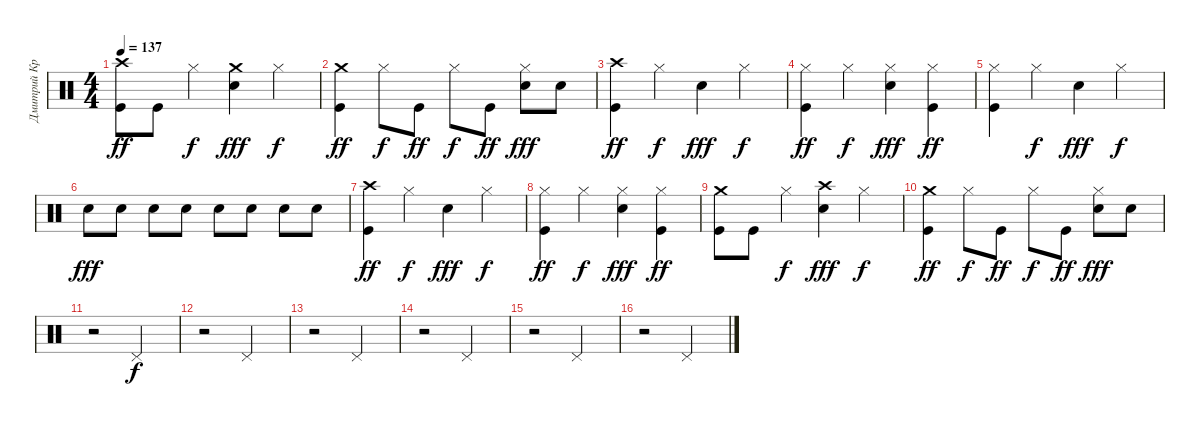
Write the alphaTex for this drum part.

\track ("Дмитрий Кревенков" "Дмитрий Кр") {instrument percussion}
\staff {score}
\articulation defaults
\ts (4 4)
\tempo 137
\clef neutral
\ks c
("Crash high (hit)" "Kick (hit)").8{dy ff} "Kick (hit)".8 "Hi-Hat (closed)".4{dy f} ("Crash medium (hit)" "Snare (hit) 2").4{dy fff} "Hi-Hat (closed)".4{dy f} |
("Crash medium (hit)" "Kick (hit)").4{dy ff} "Hi-Hat (closed)".8{dy f} "Kick (hit)".8{dy ff} "Hi-Hat (closed)".8{dy f} "Kick (hit)".8{dy ff} ("Snare (hit) 2" "Hi-Hat (closed)").8{dy fff} "Snare (hit) 2".8 |
("Kick (hit)" "Crash high (hit)").4{dy ff} "Hi-Hat (closed)".4{dy f} "Snare (hit) 2".4{dy fff} "Hi-Hat (closed)".4{dy f} |
("Kick (hit)" "Hi-Hat (closed)").4{dy ff} "Hi-Hat (closed)".4{dy f} ("Snare (hit) 2" "Hi-Hat (closed)").4{dy fff} ("Kick (hit)" "Hi-Hat (closed)").4{dy ff} |
("Kick (hit)" "Hi-Hat (closed)").4 "Hi-Hat (closed)".4{dy f} "Snare (hit) 2".4{dy fff} "Hi-Hat (closed)".4{dy f} |
"Snare (hit) 2".8{dy fff} "Snare (hit) 2".8 "Snare (hit) 2".8 "Snare (hit) 2".8 "Snare (hit) 2".8 "Snare (hit) 2".8 "Snare (hit) 2".8 "Snare (hit) 2".8 |
("Kick (hit)" "Crash high (hit)").4{dy ff} "Hi-Hat (closed)".4{dy f} "Snare (hit) 2".4{dy fff} "Hi-Hat (closed)".4{dy f} |
("Kick (hit)" "Hi-Hat (closed)").4{dy ff} "Hi-Hat (closed)".4{dy f} ("Snare (hit) 2" "Hi-Hat (closed)").4{dy fff} ("Kick (hit)" "Hi-Hat (closed)").4{dy ff} |
("Kick (hit)" "Crash medium (hit)").8 "Kick (hit)".8 "Hi-Hat (closed)".4{dy f} ("Snare (hit) 2" "Crash high (hit)").4{dy fff} "Hi-Hat (closed)".4{dy f} |
("Crash medium (hit)" "Kick (hit)").4{dy ff} "Hi-Hat (closed)".8{dy f} "Kick (hit)".8{dy ff} "Hi-Hat (closed)".8{dy f} "Kick (hit)".8{dy ff} ("Snare (hit) 2" "Hi-Hat (closed)").8{dy fff} "Snare (hit) 2".8 |
r.2 "Pedal Hi-Hat (hit)".2{dy f} |
r.2 "Pedal Hi-Hat (hit)".2 |
r.2 "Pedal Hi-Hat (hit)".2 |
r.2 "Pedal Hi-Hat (hit)".2 |
r.2 "Pedal Hi-Hat (hit)".2 |
r.2 "Pedal Hi-Hat (hit)".2
